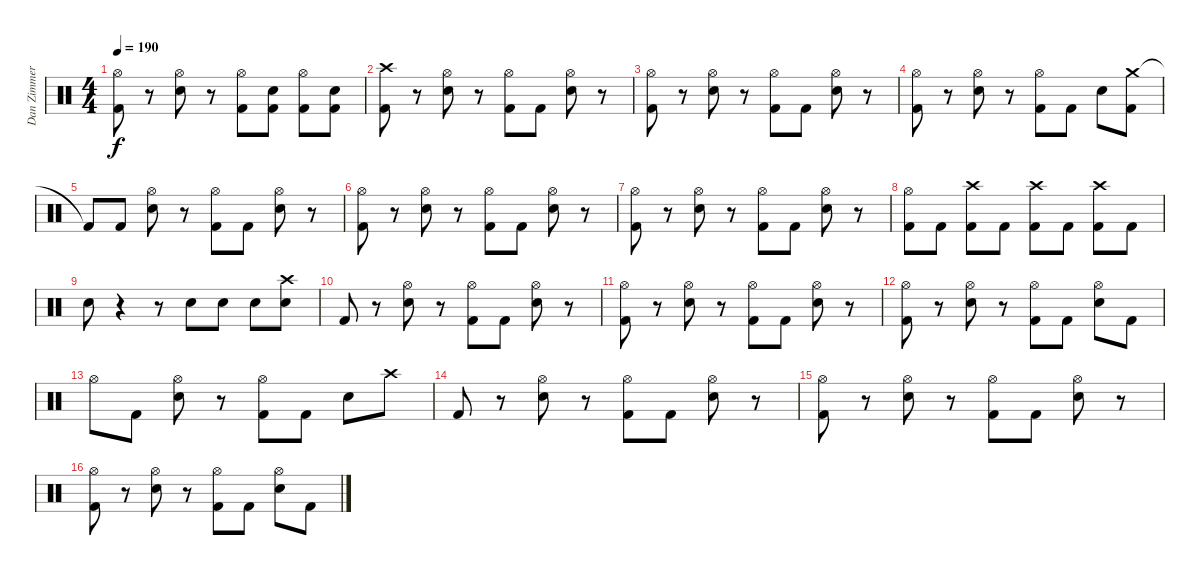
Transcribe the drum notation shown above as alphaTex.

\track ("Dan Zimmermann" "Dan Zimmer") {instrument percussion}
\staff {score}
\articulation defaults
\ts (4 4)
\tempo 190
\clef neutral
\ks c
("Hi-Hat (open)" "Kick (hit) 2").8{dy f} r.8 ("Hi-Hat (open)" "Electric Snare (hit)").8 r.8 ("Hi-Hat (open)" "Kick (hit) 2").8 ("Electric Snare (hit)" "Kick (hit) 2").8 ("Hi-Hat (open)" "Kick (hit) 2").8 ("Electric Snare (hit)" "Kick (hit) 2").8 |
("Crash high (hit)" "Kick (hit) 2").8 r.8 ("Hi-Hat (open)" "Electric Snare (hit)").8 r.8 ("Hi-Hat (open)" "Kick (hit) 2").8 "Kick (hit) 2".8 ("Hi-Hat (open)" "Electric Snare (hit)").8 r.8 |
("Hi-Hat (open)" "Kick (hit) 2").8 r.8 ("Hi-Hat (open)" "Electric Snare (hit)").8 r.8 ("Hi-Hat (open)" "Kick (hit) 2").8 "Kick (hit) 2".8 ("Hi-Hat (open)" "Electric Snare (hit)").8 r.8 |
("Hi-Hat (open)" "Kick (hit) 2").8 r.8 ("Hi-Hat (open)" "Electric Snare (hit)").8 r.8 ("Hi-Hat (open)" "Kick (hit) 2").8 "Kick (hit) 2".8 "Electric Snare (hit)".8 ("Crash medium (hit)" "Kick (hit) 2").8 |
"Kick (hit) 2"{t}.8 "Kick (hit) 2".8 ("Hi-Hat (open)" "Electric Snare (hit)").8 r.8 ("Hi-Hat (open)" "Kick (hit) 2").8 "Kick (hit) 2".8 ("Hi-Hat (open)" "Electric Snare (hit)").8 r.8 |
("Hi-Hat (open)" "Kick (hit) 2").8 r.8 ("Hi-Hat (open)" "Electric Snare (hit)").8 r.8 ("Hi-Hat (open)" "Kick (hit) 2").8 "Kick (hit) 2".8 ("Hi-Hat (open)" "Electric Snare (hit)").8 r.8 |
("Hi-Hat (open)" "Kick (hit) 2").8 r.8 ("Hi-Hat (open)" "Electric Snare (hit)").8 r.8 ("Hi-Hat (open)" "Kick (hit) 2").8 "Kick (hit) 2".8 ("Hi-Hat (open)" "Electric Snare (hit)").8 r.8 |
("Hi-Hat (open)" "Kick (hit) 2").8 "Kick (hit) 2".8 ("Crash high (hit)" "Kick (hit) 2").8 "Kick (hit) 2".8 ("Crash high (hit)" "Kick (hit) 2").8 "Kick (hit) 2".8 ("Crash high (hit)" "Kick (hit) 2").8 "Kick (hit) 2".8 |
"Electric Snare (hit)".8 r.4 r.8 "Electric Snare (hit)".8 "Electric Snare (hit)".8 "Electric Snare (hit)".8 ("Crash high (hit)" "Electric Snare (hit)").8 |
"Kick (hit) 2".8 r.8 ("Hi-Hat (open)" "Electric Snare (hit)").8 r.8 ("Hi-Hat (open)" "Kick (hit) 2").8 "Kick (hit) 2".8 ("Hi-Hat (open)" "Electric Snare (hit)").8 r.8 |
("Hi-Hat (open)" "Kick (hit) 2").8 r.8 ("Hi-Hat (open)" "Electric Snare (hit)").8 r.8 ("Hi-Hat (open)" "Kick (hit) 2").8 "Kick (hit) 2".8 ("Hi-Hat (open)" "Electric Snare (hit)").8 r.8 |
("Hi-Hat (open)" "Kick (hit) 2").8 r.8 ("Hi-Hat (open)" "Electric Snare (hit)").8 r.8 ("Hi-Hat (open)" "Kick (hit) 2").8 "Kick (hit) 2".8 ("Hi-Hat (open)" "Electric Snare (hit)").8 "Kick (hit) 2".8 |
"Hi-Hat (open)".8 "Kick (hit) 2".8 ("Hi-Hat (open)" "Electric Snare (hit)").8 r.8 ("Hi-Hat (open)" "Kick (hit) 2").8 "Kick (hit) 2".8 "Electric Snare (hit)".8 "Crash high (hit)".8 |
"Kick (hit) 2".8 r.8 ("Hi-Hat (open)" "Electric Snare (hit)").8 r.8 ("Hi-Hat (open)" "Kick (hit) 2").8 "Kick (hit) 2".8 ("Hi-Hat (open)" "Electric Snare (hit)").8 r.8 |
("Hi-Hat (open)" "Kick (hit) 2").8 r.8 ("Hi-Hat (open)" "Electric Snare (hit)").8 r.8 ("Hi-Hat (open)" "Kick (hit) 2").8 "Kick (hit) 2".8 ("Hi-Hat (open)" "Electric Snare (hit)").8 r.8 |
("Hi-Hat (open)" "Kick (hit) 2").8 r.8 ("Hi-Hat (open)" "Electric Snare (hit)").8 r.8 ("Hi-Hat (open)" "Kick (hit) 2").8 "Kick (hit) 2".8 ("Hi-Hat (open)" "Electric Snare (hit)").8 "Kick (hit) 2".8
